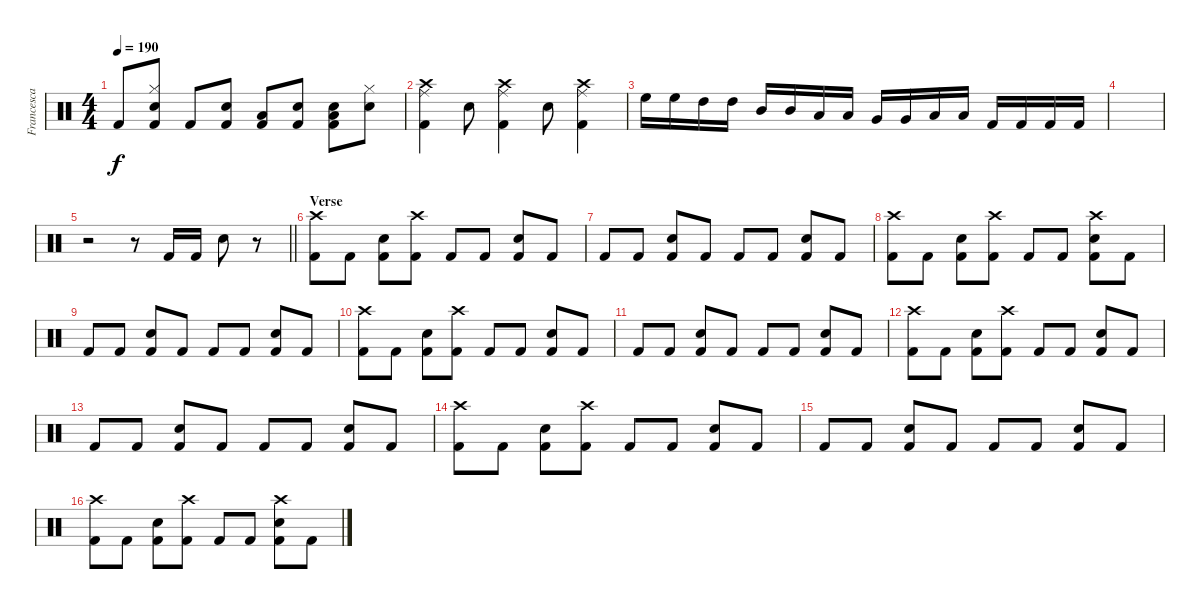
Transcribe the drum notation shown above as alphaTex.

\track ("Francesca Tresca" "Francesca ") {instrument percussion}
\staff {score}
\articulation defaults
\ts (4 4)
\tempo 190
\clef neutral
\ks c "Kick (hit) 2".8{dy f}
("Hi-Hat (closed)" "Snare (hit) 2" "Kick (hit) 2").8 "Kick (hit) 2".8 ("Snare (hit) 2" "Kick (hit) 2").8 ("Low Tom (hit)" "Kick (hit) 2").8 ("Snare (hit) 2" "Kick (hit) 2").8 ("Low Tom (hit)" "Snare (hit) 2" "Kick (hit) 2").8 ("Hi-Hat (closed)" "Snare (hit) 2").8 |
("Ride (middle)" "Crash high (hit)" "Kick (hit) 2").4 "Snare (hit) 2".8 ("Ride (middle)" "Crash high (hit)" "Kick (hit) 2").4 "Snare (hit) 2".8 ("Ride (middle)" "Crash high (hit)" "Kick (hit) 2").4 |
"High Floor Tom (hit)".16 "High Floor Tom (hit)".16 "High Tom (hit)".16 "High Tom (hit)".16 "Mid Tom (hit)".16 "Mid Tom (hit)".16 "Low Tom (hit)".16 "Low Tom (hit)".16 "Very Low Tom (hit)".16 "Very Low Tom (hit)".16 "Low Floor Tom (hit)".16 "Low Floor Tom (hit)".16 "Kick (hit) 2".16 "Kick (hit) 2".16 "Kick (hit) 2".16 "Kick (hit) 2".16 |
|
\barLineRight lightlight
r.2 r.8 "Kick (hit) 2".16 "Kick (hit) 2".16 "Snare (hit) 2".8 r.8 |
\section ("" "Verse")
("Crash high (hit)" "Kick (hit) 2").8 "Kick (hit) 2".8 ("Snare (hit) 2" "Kick (hit) 2").8 ("Crash high (hit)" "Kick (hit) 2").8 "Kick (hit) 2".8 "Kick (hit) 2".8 ("Snare (hit) 2" "Kick (hit) 2").8 "Kick (hit) 2".8 |
"Kick (hit) 2".8 "Kick (hit) 2".8 ("Snare (hit) 2" "Kick (hit) 2").8 "Kick (hit) 2".8 "Kick (hit) 2".8 "Kick (hit) 2".8 ("Snare (hit) 2" "Kick (hit) 2").8 "Kick (hit) 2".8 |
("Crash high (hit)" "Kick (hit) 2").8 "Kick (hit) 2".8 ("Snare (hit) 2" "Kick (hit) 2").8 ("Crash high (hit)" "Kick (hit) 2").8 "Kick (hit) 2".8 "Kick (hit) 2".8 ("Crash high (hit)" "Snare (hit) 2" "Kick (hit) 2").8 "Kick (hit) 2".8 |
"Kick (hit) 2".8 "Kick (hit) 2".8 ("Snare (hit) 2" "Kick (hit) 2").8 "Kick (hit) 2".8 "Kick (hit) 2".8 "Kick (hit) 2".8 ("Snare (hit) 2" "Kick (hit) 2").8 "Kick (hit) 2".8 |
("Crash high (hit)" "Kick (hit) 2").8 "Kick (hit) 2".8 ("Snare (hit) 2" "Kick (hit) 2").8 ("Crash high (hit)" "Kick (hit) 2").8 "Kick (hit) 2".8 "Kick (hit) 2".8 ("Snare (hit) 2" "Kick (hit) 2").8 "Kick (hit) 2".8 |
"Kick (hit) 2".8 "Kick (hit) 2".8 ("Snare (hit) 2" "Kick (hit) 2").8 "Kick (hit) 2".8 "Kick (hit) 2".8 "Kick (hit) 2".8 ("Snare (hit) 2" "Kick (hit) 2").8 "Kick (hit) 2".8 |
("Crash high (hit)" "Kick (hit) 2").8 "Kick (hit) 2".8 ("Snare (hit) 2" "Kick (hit) 2").8 ("Crash high (hit)" "Kick (hit) 2").8 "Kick (hit) 2".8 "Kick (hit) 2".8 ("Snare (hit) 2" "Kick (hit) 2").8 "Kick (hit) 2".8 |
"Kick (hit) 2".8 "Kick (hit) 2".8 ("Snare (hit) 2" "Kick (hit) 2").8 "Kick (hit) 2".8 "Kick (hit) 2".8 "Kick (hit) 2".8 ("Snare (hit) 2" "Kick (hit) 2").8 "Kick (hit) 2".8 |
("Crash high (hit)" "Kick (hit) 2").8 "Kick (hit) 2".8 ("Snare (hit) 2" "Kick (hit) 2").8 ("Crash high (hit)" "Kick (hit) 2").8 "Kick (hit) 2".8 "Kick (hit) 2".8 ("Snare (hit) 2" "Kick (hit) 2").8 "Kick (hit) 2".8 |
"Kick (hit) 2".8 "Kick (hit) 2".8 ("Snare (hit) 2" "Kick (hit) 2").8 "Kick (hit) 2".8 "Kick (hit) 2".8 "Kick (hit) 2".8 ("Snare (hit) 2" "Kick (hit) 2").8 "Kick (hit) 2".8 |
("Crash high (hit)" "Kick (hit) 2").8 "Kick (hit) 2".8 ("Snare (hit) 2" "Kick (hit) 2").8 ("Crash high (hit)" "Kick (hit) 2").8 "Kick (hit) 2".8 "Kick (hit) 2".8 ("Crash high (hit)" "Snare (hit) 2" "Kick (hit) 2").8 "Kick (hit) 2".8
